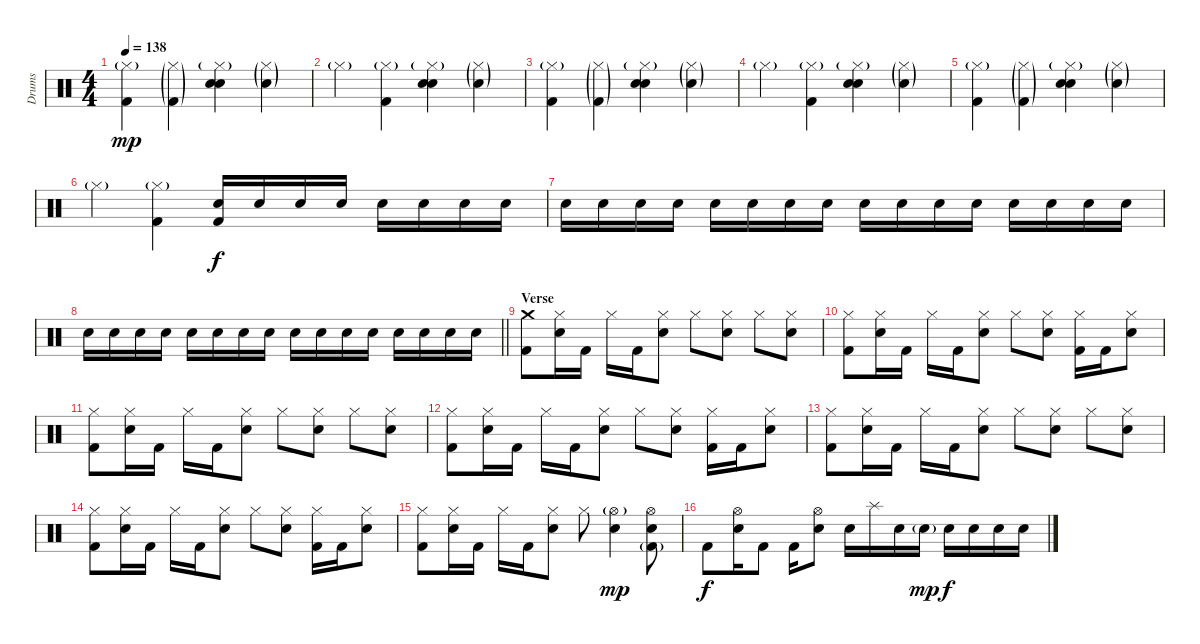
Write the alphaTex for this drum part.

\track ("Drums" "Drums") {instrument percussion}
\staff {score}
\articulation defaults
\ts (4 4)
\tempo 138
\clef neutral
\ks c
("Hi-Hat (closed)"{g} "Kick (hit) 2").4{dy mp volume 7} ("Hi-Hat (closed)"{g} "Kick (hit) 2"{g}).4 ("Hi-Hat (closed)"{g} "Hand Clap (hit)" "Electric Snare (hit)").4{volume 6} ("Hi-Hat (closed)"{g} "Electric Snare (hit)"{g}).4 |
"Hi-Hat (closed)"{g}.4 ("Hi-Hat (closed)"{g} "Kick (hit) 2").4{volume 7} ("Hi-Hat (closed)"{g} "Hand Clap (hit)" "Electric Snare (hit)").4{volume 6} ("Hi-Hat (closed)"{g} "Electric Snare (hit)"{g}).4 |
("Hi-Hat (closed)"{g} "Kick (hit) 2").4{volume 7} ("Hi-Hat (closed)"{g} "Kick (hit) 2"{g}).4 ("Hi-Hat (closed)"{g} "Hand Clap (hit)" "Electric Snare (hit)").4{volume 6} ("Hi-Hat (closed)"{g} "Electric Snare (hit)"{g}).4 |
"Hi-Hat (closed)"{g}.4 ("Hi-Hat (closed)"{g} "Kick (hit) 2").4{volume 7} ("Hi-Hat (closed)"{g} "Hand Clap (hit)" "Electric Snare (hit)").4{volume 6} ("Hi-Hat (closed)"{g} "Electric Snare (hit)"{g}).4 |
("Hi-Hat (closed)"{g} "Kick (hit) 2").4{volume 7} ("Hi-Hat (closed)"{g} "Kick (hit) 2"{g}).4 ("Hi-Hat (closed)"{g} "Hand Clap (hit)" "Electric Snare (hit)").4{volume 6} ("Hi-Hat (closed)"{g} "Electric Snare (hit)"{g}).4 |
"Hi-Hat (closed)"{g}.4 ("Hi-Hat (closed)"{g} "Kick (hit) 2").4{volume 7} ("Electric Snare (hit)" "Kick (hit) 2").16{dy f volume 2} "Electric Snare (hit)".16{volume 12} "Electric Snare (hit)".16 "Electric Snare (hit)".16 "Electric Snare (hit)".16 "Electric Snare (hit)".16 "Electric Snare (hit)".16 "Electric Snare (hit)".16 |
"Electric Snare (hit)".16 "Electric Snare (hit)".16 "Electric Snare (hit)".16 "Electric Snare (hit)".16 "Electric Snare (hit)".16 "Electric Snare (hit)".16 "Electric Snare (hit)".16 "Electric Snare (hit)".16 "Electric Snare (hit)".16 "Electric Snare (hit)".16 "Electric Snare (hit)".16 "Electric Snare (hit)".16 "Electric Snare (hit)".16 "Electric Snare (hit)".16 "Electric Snare (hit)".16 "Electric Snare (hit)".16 |
\barLineRight lightlight "Electric Snare (hit)".16 "Electric Snare (hit)".16 "Electric Snare (hit)".16 "Electric Snare (hit)".16 "Electric Snare (hit)".16 "Electric Snare (hit)".16 "Electric Snare (hit)".16 "Electric Snare (hit)".16 "Electric Snare (hit)".16 "Electric Snare (hit)".16 "Electric Snare (hit)".16 "Electric Snare (hit)".16 "Electric Snare (hit)".16 "Electric Snare (hit)".16 "Electric Snare (hit)".16 "Electric Snare (hit)".16
|
\section ("" "Verse")
("Crash medium (hit)" "Kick (hit) 2").8 ("Hi-Hat (closed)" "Electric Snare (hit)").16 "Kick (hit) 2".16 "Hi-Hat (closed)".16 "Kick (hit) 2".16 ("Hi-Hat (closed)" "Electric Snare (hit)").8 "Hi-Hat (closed)".8 ("Hi-Hat (closed)" "Electric Snare (hit)").8 "Hi-Hat (closed)".8 ("Hi-Hat (closed)" "Electric Snare (hit)").8 |
("Hi-Hat (closed)" "Kick (hit) 2").8 ("Hi-Hat (closed)" "Electric Snare (hit)").16 "Kick (hit) 2".16 "Hi-Hat (closed)".16 "Kick (hit) 2".16 ("Hi-Hat (closed)" "Electric Snare (hit)").8 "Hi-Hat (closed)".8 ("Hi-Hat (closed)" "Electric Snare (hit)").8 ("Hi-Hat (closed)" "Kick (hit) 2").16 "Kick (hit) 2".16 ("Hi-Hat (closed)" "Electric Snare (hit)").8 |
("Hi-Hat (closed)" "Kick (hit) 2").8 ("Hi-Hat (closed)" "Electric Snare (hit)").16 "Kick (hit) 2".16 "Hi-Hat (closed)".16 "Kick (hit) 2".16 ("Hi-Hat (closed)" "Electric Snare (hit)").8 "Hi-Hat (closed)".8 ("Hi-Hat (closed)" "Electric Snare (hit)").8 "Hi-Hat (closed)".8 ("Hi-Hat (closed)" "Electric Snare (hit)").8 |
("Hi-Hat (closed)" "Kick (hit) 2").8 ("Hi-Hat (closed)" "Electric Snare (hit)").16 "Kick (hit) 2".16 "Hi-Hat (closed)".16 "Kick (hit) 2".16 ("Hi-Hat (closed)" "Electric Snare (hit)").8 "Hi-Hat (closed)".8 ("Hi-Hat (closed)" "Electric Snare (hit)").8 ("Hi-Hat (closed)" "Kick (hit) 2").16 "Kick (hit) 2".16 ("Hi-Hat (closed)" "Electric Snare (hit)").8 |
("Hi-Hat (closed)" "Kick (hit) 2").8 ("Hi-Hat (closed)" "Electric Snare (hit)").16 "Kick (hit) 2".16 "Hi-Hat (closed)".16 "Kick (hit) 2".16 ("Hi-Hat (closed)" "Electric Snare (hit)").8 "Hi-Hat (closed)".8 ("Hi-Hat (closed)" "Electric Snare (hit)").8 "Hi-Hat (closed)".8 ("Hi-Hat (closed)" "Electric Snare (hit)").8 |
("Hi-Hat (closed)" "Kick (hit) 2").8 ("Hi-Hat (closed)" "Electric Snare (hit)").16 "Kick (hit) 2".16 "Hi-Hat (closed)".16 "Kick (hit) 2".16 ("Hi-Hat (closed)" "Electric Snare (hit)").8 "Hi-Hat (closed)".8 ("Hi-Hat (closed)" "Electric Snare (hit)").8 ("Hi-Hat (closed)" "Kick (hit) 2").16 "Kick (hit) 2".16 ("Hi-Hat (closed)" "Electric Snare (hit)").8 |
("Hi-Hat (closed)" "Kick (hit) 2").8 ("Hi-Hat (closed)" "Electric Snare (hit)").16 "Kick (hit) 2".16 "Hi-Hat (closed)".16 "Kick (hit) 2".16 ("Hi-Hat (closed)" "Electric Snare (hit)").8 "Hi-Hat (closed)".8 ("Hi-Hat (open)"{g} "Electric Snare (hit)").4{dy mp} ("Hi-Hat (open)" "Electric Snare (hit)" "Kick (hit) 2"{g}).8 |
"Kick (hit) 2".8{dy f} ("Hi-Hat (open)" "Electric Snare (hit)").16 "Kick (hit) 2".8 "Kick (hit) 2".16 ("Hi-Hat (open)" "Electric Snare (hit)").8 "Electric Snare (hit)".16 "Splash (hit)".16 "Electric Snare (hit)".16 "Electric Snare (hit)"{g}.16{dy mp} "Electric Snare (hit)".16{dy f} "Electric Snare (hit)".16 "Electric Snare (hit)".16 "Electric Snare (hit)".16
